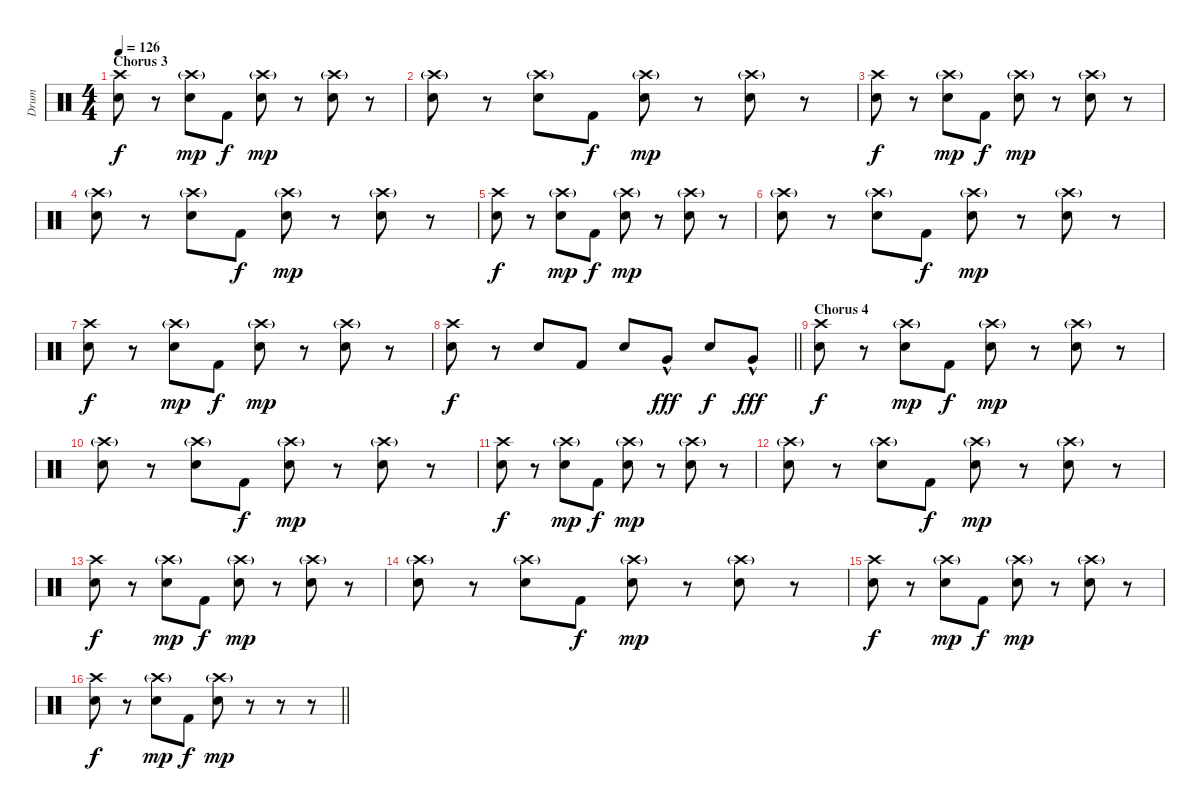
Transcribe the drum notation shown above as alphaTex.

\track ("Drum" "Drum") {instrument percussion}
\staff {score}
\articulation defaults
\ts (4 4)
\section ("" "Chorus 3")
\tempo 126
\clef neutral
\ks c
("Crash high (hit)" "Electric Snare (hit)").8{dy f} r.8 ("Crash high (hit)"{g} "Electric Snare (hit)").8{dy mp} "Kick (hit) 2".8{dy f} ("Crash high (hit)"{g} "Electric Snare (hit)").8{dy mp} r.8 ("Crash high (hit)"{g} "Electric Snare (hit)").8 r.8 |
("Crash high (hit)"{g} "Electric Snare (hit)").8 r.8 ("Crash high (hit)"{g} "Electric Snare (hit)").8 "Kick (hit) 2".8{dy f} ("Crash high (hit)"{g} "Electric Snare (hit)").8{dy mp} r.8 ("Crash high (hit)"{g} "Electric Snare (hit)").8 r.8 |
("Crash high (hit)" "Electric Snare (hit)").8{dy f} r.8 ("Crash high (hit)"{g} "Electric Snare (hit)").8{dy mp} "Kick (hit) 2".8{dy f} ("Crash high (hit)"{g} "Electric Snare (hit)").8{dy mp} r.8 ("Crash high (hit)"{g} "Electric Snare (hit)").8 r.8 |
("Crash high (hit)"{g} "Electric Snare (hit)").8 r.8 ("Crash high (hit)"{g} "Electric Snare (hit)").8 "Kick (hit) 2".8{dy f} ("Crash high (hit)"{g} "Electric Snare (hit)").8{dy mp} r.8 ("Crash high (hit)"{g} "Electric Snare (hit)").8 r.8 |
("Crash high (hit)" "Electric Snare (hit)").8{dy f} r.8 ("Crash high (hit)"{g} "Electric Snare (hit)").8{dy mp} "Kick (hit) 2".8{dy f} ("Crash high (hit)"{g} "Electric Snare (hit)").8{dy mp} r.8 ("Crash high (hit)"{g} "Electric Snare (hit)").8 r.8 |
("Crash high (hit)"{g} "Electric Snare (hit)").8 r.8 ("Crash high (hit)"{g} "Electric Snare (hit)").8 "Kick (hit) 2".8{dy f} ("Crash high (hit)"{g} "Electric Snare (hit)").8{dy mp} r.8 ("Crash high (hit)"{g} "Electric Snare (hit)").8 r.8 |
("Crash high (hit)" "Electric Snare (hit)").8{dy f} r.8 ("Crash high (hit)"{g} "Electric Snare (hit)").8{dy mp} "Kick (hit) 2".8{dy f} ("Crash high (hit)"{g} "Electric Snare (hit)").8{dy mp} r.8 ("Crash high (hit)"{g} "Electric Snare (hit)").8 r.8 |
\barLineRight lightlight
("Crash high (hit)" "Electric Snare (hit)").8{dy f} r.8 "Electric Snare (hit)".8 "Kick (hit) 2".8 "Electric Snare (hit)".8 "Very Low Tom (hit)"{hac}.8{dy fff} "Electric Snare (hit)".8{dy f} "Very Low Tom (hit)"{hac}.8{dy fff} |
\section ("" "Chorus 4")
("Crash high (hit)" "Electric Snare (hit)").8{dy f} r.8 ("Crash high (hit)"{g} "Electric Snare (hit)").8{dy mp} "Kick (hit) 2".8{dy f} ("Crash high (hit)"{g} "Electric Snare (hit)").8{dy mp} r.8 ("Crash high (hit)"{g} "Electric Snare (hit)").8 r.8 |
("Crash high (hit)"{g} "Electric Snare (hit)").8 r.8 ("Crash high (hit)"{g} "Electric Snare (hit)").8 "Kick (hit) 2".8{dy f} ("Crash high (hit)"{g} "Electric Snare (hit)").8{dy mp} r.8 ("Crash high (hit)"{g} "Electric Snare (hit)").8 r.8 |
("Crash high (hit)" "Electric Snare (hit)").8{dy f} r.8 ("Crash high (hit)"{g} "Electric Snare (hit)").8{dy mp} "Kick (hit) 2".8{dy f} ("Crash high (hit)"{g} "Electric Snare (hit)").8{dy mp} r.8 ("Crash high (hit)"{g} "Electric Snare (hit)").8 r.8 |
("Crash high (hit)"{g} "Electric Snare (hit)").8 r.8 ("Crash high (hit)"{g} "Electric Snare (hit)").8 "Kick (hit) 2".8{dy f} ("Crash high (hit)"{g} "Electric Snare (hit)").8{dy mp} r.8 ("Crash high (hit)"{g} "Electric Snare (hit)").8 r.8 |
("Crash high (hit)" "Electric Snare (hit)").8{dy f} r.8 ("Crash high (hit)"{g} "Electric Snare (hit)").8{dy mp} "Kick (hit) 2".8{dy f} ("Crash high (hit)"{g} "Electric Snare (hit)").8{dy mp} r.8 ("Crash high (hit)"{g} "Electric Snare (hit)").8 r.8 |
("Crash high (hit)"{g} "Electric Snare (hit)").8 r.8 ("Crash high (hit)"{g} "Electric Snare (hit)").8 "Kick (hit) 2".8{dy f} ("Crash high (hit)"{g} "Electric Snare (hit)").8{dy mp} r.8 ("Crash high (hit)"{g} "Electric Snare (hit)").8 r.8 |
("Crash high (hit)" "Electric Snare (hit)").8{dy f} r.8 ("Crash high (hit)"{g} "Electric Snare (hit)").8{dy mp} "Kick (hit) 2".8{dy f} ("Crash high (hit)"{g} "Electric Snare (hit)").8{dy mp} r.8 ("Crash high (hit)"{g} "Electric Snare (hit)").8 r.8 |
\barLineRight lightlight
("Crash high (hit)" "Electric Snare (hit)").8{dy f} r.8 ("Crash high (hit)"{g} "Electric Snare (hit)").8{dy mp} "Kick (hit) 2".8{dy f} ("Crash high (hit)"{g} "Electric Snare (hit)").8{dy mp} r.8 r.8 r.8
